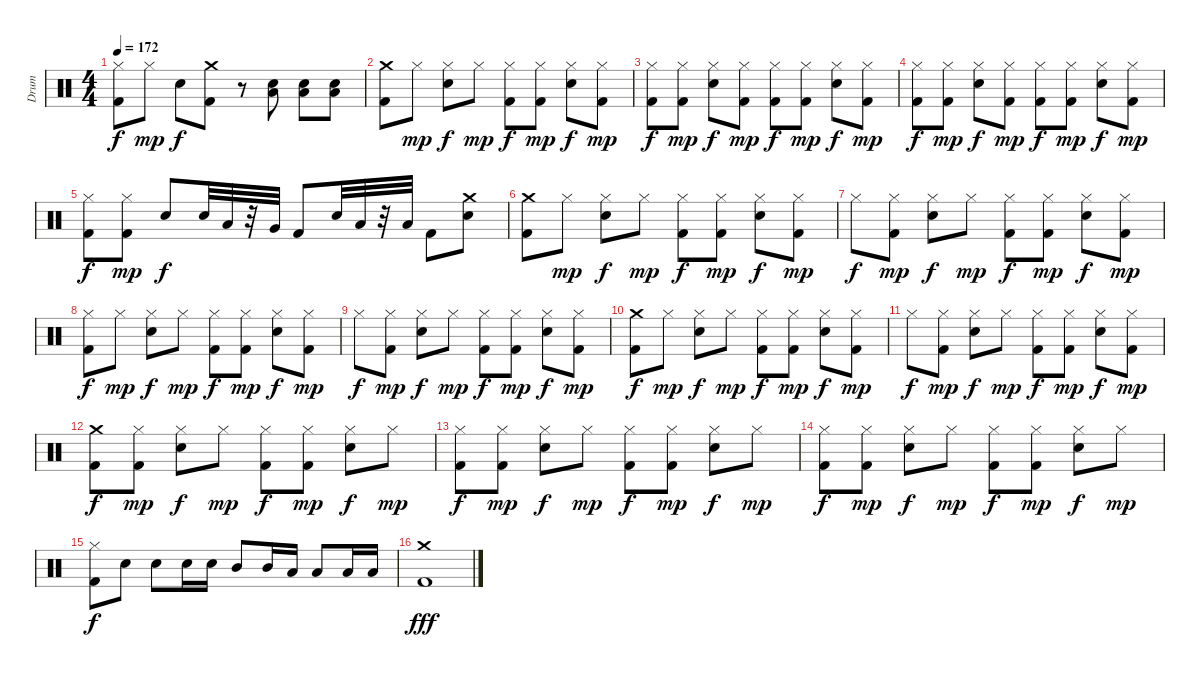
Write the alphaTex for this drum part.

\track ("Drum" "Drum") {instrument percussion}
\staff {score}
\articulation defaults
\ts (4 4)
\tempo 172
\clef neutral
\ks c
("Hi-Hat (closed)" "Kick (hit) 2").8{dy f} "Hi-Hat (closed)".8{dy mp} "Electric Snare (hit)".8{dy f} ("Crash medium (hit)" "Kick (hit) 2").8 r.8 ("Electric Snare (hit)" "Low Tom (hit)").8 ("Electric Snare (hit)" "Low Tom (hit)").8 ("Electric Snare (hit)" "Low Tom (hit)").8 |
("Crash medium (hit)" "Kick (hit) 2").8 "Hi-Hat (closed)".8{dy mp} ("Hi-Hat (closed)" "Electric Snare (hit)").8{dy f} "Hi-Hat (closed)".8{dy mp} ("Hi-Hat (closed)" "Kick (hit) 2").8{dy f} ("Hi-Hat (closed)" "Kick (hit) 2").8{dy mp} ("Hi-Hat (closed)" "Electric Snare (hit)").8{dy f} ("Hi-Hat (closed)" "Kick (hit) 2").8{dy mp} |
("Hi-Hat (closed)" "Kick (hit) 2").8{dy f} ("Hi-Hat (closed)" "Kick (hit) 2").8{dy mp} ("Hi-Hat (closed)" "Electric Snare (hit)").8{dy f} ("Hi-Hat (closed)" "Kick (hit) 2").8{dy mp} ("Hi-Hat (closed)" "Kick (hit) 2").8{dy f} ("Hi-Hat (closed)" "Kick (hit) 2").8{dy mp} ("Hi-Hat (closed)" "Electric Snare (hit)").8{dy f} ("Hi-Hat (closed)" "Kick (hit) 2").8{dy mp} |
("Hi-Hat (closed)" "Kick (hit) 2").8{dy f} ("Hi-Hat (closed)" "Kick (hit) 2").8{dy mp} ("Hi-Hat (closed)" "Electric Snare (hit)").8{dy f} ("Hi-Hat (closed)" "Kick (hit) 2").8{dy mp} ("Hi-Hat (closed)" "Kick (hit) 2").8{dy f} ("Hi-Hat (closed)" "Kick (hit) 2").8{dy mp} ("Hi-Hat (closed)" "Electric Snare (hit)").8{dy f} ("Hi-Hat (closed)" "Kick (hit) 2").8{dy mp} |
("Hi-Hat (closed)" "Kick (hit) 2").8{dy f} ("Hi-Hat (closed)" "Kick (hit) 2").8{dy mp} "Electric Snare (hit)".8{dy f} "Electric Snare (hit)".32 "Low Tom (hit)".32 r.32 "Very Low Tom (hit)".32 "Kick (hit) 2".8 "Electric Snare (hit)".32 "Low Tom (hit)".32 r.32 "Low Floor Tom (hit)".32 "Kick (hit) 2".8 ("Crash medium (hit)" "Electric Snare (hit)").8 |
("Crash medium (hit)" "Kick (hit) 2").8 "Hi-Hat (closed)".8{dy mp} ("Hi-Hat (closed)" "Electric Snare (hit)").8{dy f} "Hi-Hat (closed)".8{dy mp} ("Hi-Hat (closed)" "Kick (hit) 2").8{dy f} ("Hi-Hat (closed)" "Kick (hit) 2").8{dy mp} ("Hi-Hat (closed)" "Electric Snare (hit)").8{dy f} ("Hi-Hat (closed)" "Kick (hit) 2").8{dy mp} |
"Hi-Hat (closed)".8{dy f} ("Hi-Hat (closed)" "Kick (hit) 2").8{dy mp} ("Hi-Hat (closed)" "Electric Snare (hit)").8{dy f} "Hi-Hat (closed)".8{dy mp} ("Hi-Hat (closed)" "Kick (hit) 2").8{dy f} ("Hi-Hat (closed)" "Kick (hit) 2").8{dy mp} ("Hi-Hat (closed)" "Electric Snare (hit)").8{dy f} ("Hi-Hat (closed)" "Kick (hit) 2").8{dy mp} |
("Hi-Hat (closed)" "Kick (hit) 2").8{dy f} "Hi-Hat (closed)".8{dy mp} ("Hi-Hat (closed)" "Electric Snare (hit)").8{dy f} "Hi-Hat (closed)".8{dy mp} ("Hi-Hat (closed)" "Kick (hit) 2").8{dy f} ("Hi-Hat (closed)" "Kick (hit) 2").8{dy mp} ("Hi-Hat (closed)" "Electric Snare (hit)").8{dy f} ("Hi-Hat (closed)" "Kick (hit) 2").8{dy mp} |
"Hi-Hat (closed)".8{dy f} ("Hi-Hat (closed)" "Kick (hit) 2").8{dy mp} ("Hi-Hat (closed)" "Electric Snare (hit)").8{dy f} "Hi-Hat (closed)".8{dy mp} ("Hi-Hat (closed)" "Kick (hit) 2").8{dy f} ("Hi-Hat (closed)" "Kick (hit) 2").8{dy mp} ("Hi-Hat (closed)" "Electric Snare (hit)").8{dy f} ("Hi-Hat (closed)" "Kick (hit) 2").8{dy mp} |
("Crash medium (hit)" "Kick (hit) 2").8{dy f} "Hi-Hat (closed)".8{dy mp} ("Hi-Hat (closed)" "Electric Snare (hit)").8{dy f} "Hi-Hat (closed)".8{dy mp} ("Hi-Hat (closed)" "Kick (hit) 2").8{dy f} ("Hi-Hat (closed)" "Kick (hit) 2").8{dy mp} ("Hi-Hat (closed)" "Electric Snare (hit)").8{dy f} ("Hi-Hat (closed)" "Kick (hit) 2").8{dy mp} |
"Hi-Hat (closed)".8{dy f} ("Hi-Hat (closed)" "Kick (hit) 2").8{dy mp} ("Hi-Hat (closed)" "Electric Snare (hit)").8{dy f} "Hi-Hat (closed)".8{dy mp} ("Hi-Hat (closed)" "Kick (hit) 2").8{dy f} ("Hi-Hat (closed)" "Kick (hit) 2").8{dy mp} ("Hi-Hat (closed)" "Electric Snare (hit)").8{dy f} ("Hi-Hat (closed)" "Kick (hit) 2").8{dy mp} |
("Crash medium (hit)" "Kick (hit) 2").8{dy f} ("Hi-Hat (closed)" "Kick (hit) 2").8{dy mp} ("Hi-Hat (closed)" "Electric Snare (hit)").8{dy f} "Hi-Hat (closed)".8{dy mp} ("Hi-Hat (closed)" "Kick (hit) 2").8{dy f} ("Hi-Hat (closed)" "Kick (hit) 2").8{dy mp} ("Hi-Hat (closed)" "Electric Snare (hit)").8{dy f} "Hi-Hat (closed)".8{dy mp} |
("Hi-Hat (closed)" "Kick (hit) 2").8{dy f} ("Hi-Hat (closed)" "Kick (hit) 2").8{dy mp} ("Hi-Hat (closed)" "Electric Snare (hit)").8{dy f} "Hi-Hat (closed)".8{dy mp} ("Hi-Hat (closed)" "Kick (hit) 2").8{dy f} ("Hi-Hat (closed)" "Kick (hit) 2").8{dy mp} ("Hi-Hat (closed)" "Electric Snare (hit)").8{dy f} "Hi-Hat (closed)".8{dy mp} |
("Hi-Hat (closed)" "Kick (hit) 2").8{dy f} ("Hi-Hat (closed)" "Kick (hit) 2").8{dy mp} ("Hi-Hat (closed)" "Electric Snare (hit)").8{dy f} "Hi-Hat (closed)".8{dy mp} ("Hi-Hat (closed)" "Kick (hit) 2").8{dy f} ("Hi-Hat (closed)" "Kick (hit) 2").8{dy mp} ("Hi-Hat (closed)" "Electric Snare (hit)").8{dy f} "Hi-Hat (closed)".8{dy mp} |
("Hi-Hat (closed)" "Kick (hit) 2").8{dy f} "Electric Snare (hit)".8 "Electric Snare (hit)".8 "Electric Snare (hit)".16 "Electric Snare (hit)".16 "Mid Tom (hit)".8 "Mid Tom (hit)".16 "Low Tom (hit)".16 "Low Tom (hit)".8 "Low Floor Tom (hit)".16 "Low Floor Tom (hit)".16 |
("Crash medium (hit)" "Kick (hit) 2").1{dy fff}
